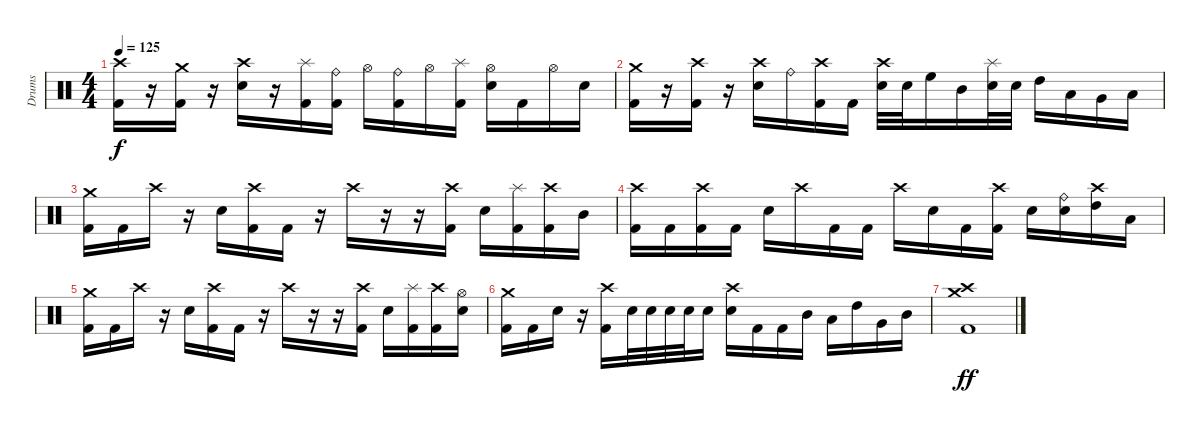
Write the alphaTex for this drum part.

\track ("Drums" "Drums") {instrument percussion}
\staff {score}
\articulation defaults
\ts (4 4)
\tempo 125
\clef neutral
\ks c
("Crash high (hit)" "Kick (hit) 2").16{dy f} r.16 ("Crash medium (hit)" "Kick (hit) 2").16 r.16 ("Crash high (hit)" "Electric Snare (hit)").16 r.16 ("Splash (hit)" "Kick (hit) 2").16 ("Ride (bell)" "Kick (hit) 2").16 "Hi-Hat (open)".16 ("Ride (bell)" "Kick (hit) 2").16 "Hi-Hat (open)".16 ("Splash (hit)" "Kick (hit) 2").16 ("Hi-Hat (open)" "Electric Snare (hit)").16 "Kick (hit) 2".16 "Hi-Hat (open)".16 "Electric Snare (hit)".16 |
("Crash medium (hit)" "Kick (hit) 2").16 r.16 ("Crash high (hit)" "Kick (hit) 2").16 r.16 ("Crash high (hit)" "Electric Snare (hit)").16 "Ride (bell)".16 ("Crash high (hit)" "Kick (hit) 2").16 "Kick (hit) 2".16 ("Crash high (hit)" "Electric Snare (hit)").32 "Electric Snare (hit)".32 "High Floor Tom (hit)".16 "Mid Tom (hit)".16 ("Splash (hit)" "Electric Snare (hit)").32 "Electric Snare (hit)".32 "High Tom (hit)".16 "Low Tom (hit)".16 "Very Low Tom (hit)".16 "Low Floor Tom (hit)".16 |
("Crash medium (hit)" "Kick (hit) 2").16 "Kick (hit) 2".16 "Crash high (hit)".16 r.16 "Electric Snare (hit)".16 ("Crash high (hit)" "Kick (hit) 2").16 "Kick (hit) 2".16 r.16 "Crash high (hit)".16 r.16 r.16 ("Crash high (hit)" "Kick (hit) 2").16 "Electric Snare (hit)".16 ("Splash (hit)" "Kick (hit) 2").16 ("Crash high (hit)" "Kick (hit) 2").16 "Mid Tom (hit)".16 |
("Crash high (hit)" "Kick (hit) 2").16 "Kick (hit) 2".16 ("Crash high (hit)" "Kick (hit) 2").16 "Kick (hit) 2".16 "Electric Snare (hit)".16 "Crash high (hit)".16 "Kick (hit) 2".16 "Kick (hit) 2".16 "Crash high (hit)".16 "Electric Snare (hit)".16 "Kick (hit) 2".16 ("Crash high (hit)" "Kick (hit) 2").16 "Electric Snare (hit)".16 ("Ride (bell)" "Electric Snare (hit)").16 ("Crash high (hit)" "High Tom (hit)").16 "Low Tom (hit)".16 |
("Crash medium (hit)" "Kick (hit) 2").16 "Kick (hit) 2".16 "Crash high (hit)".16 r.16 "Electric Snare (hit)".16 ("Crash high (hit)" "Kick (hit) 2").16 "Kick (hit) 2".16 r.16 "Crash high (hit)".16 r.16 r.16 ("Crash high (hit)" "Kick (hit) 2").16 "Electric Snare (hit)".16 ("Splash (hit)" "Kick (hit) 2").16 ("Crash high (hit)" "Kick (hit) 2").16 ("Hi-Hat (open)" "Electric Snare (hit)").16 |
("Crash medium (hit)" "Kick (hit) 2").16 "Kick (hit) 2".16 "Electric Snare (hit)".16 r.16 ("Crash high (hit)" "Kick (hit) 2").16 "Electric Snare (hit)".32 "Electric Snare (hit)".32 "Electric Snare (hit)".32 "Electric Snare (hit)".32 "Electric Snare (hit)".16 ("Crash high (hit)" "Electric Snare (hit)").16 "Kick (hit) 2".16 "Kick (hit) 2".16 "Mid Tom (hit)".16 "Low Tom (hit)".16 "High Tom (hit)".16 "Very Low Tom (hit)".16 "Mid Tom (hit)".16 |
("Crash medium (hit)" "Crash high (hit)" "Kick (hit) 2").1{dy ff}
